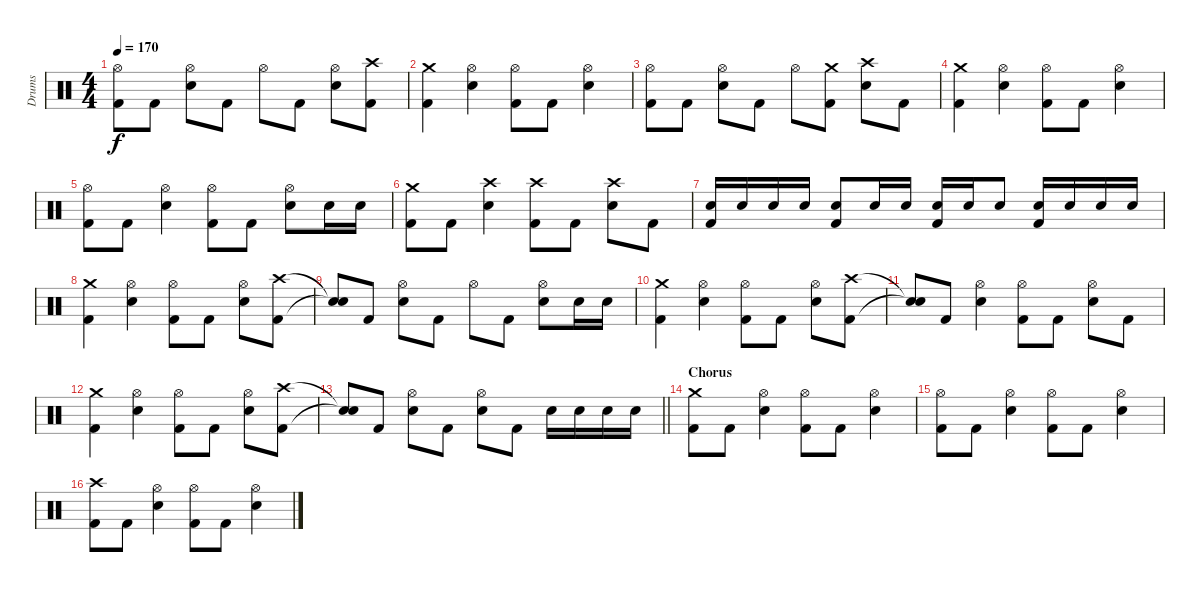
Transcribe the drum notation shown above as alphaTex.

\track ("Drums" "Drums") {instrument percussion}
\staff {score}
\articulation defaults
\ts (4 4)
\tempo 170
\clef neutral
\ks c
("Hi-Hat (open)" "Kick (hit) 2").8{dy f} "Kick (hit) 2".8 ("Hi-Hat (open)" "Electric Snare (hit)").8 "Kick (hit) 2".8 "Hi-Hat (open)".8 "Kick (hit) 2".8 ("Hi-Hat (open)" "Electric Snare (hit)").8 ("Crash high (hit)" "Kick (hit) 2").8 |
("Crash medium (hit)" "Kick (hit) 2").4 ("Hi-Hat (open)" "Electric Snare (hit)").4 ("Hi-Hat (open)" "Kick (hit) 2").8 "Kick (hit) 2".8 ("Hi-Hat (open)" "Electric Snare (hit)").4 |
("Hi-Hat (open)" "Kick (hit) 2").8 "Kick (hit) 2".8 ("Hi-Hat (open)" "Electric Snare (hit)").8 "Kick (hit) 2".8 "Hi-Hat (open)".8 ("Crash medium (hit)" "Kick (hit) 2").8 ("Crash high (hit)" "Electric Snare (hit)").8 "Kick (hit) 2".8 |
("Crash medium (hit)" "Kick (hit) 2").4 ("Hi-Hat (open)" "Electric Snare (hit)").4 ("Hi-Hat (open)" "Kick (hit) 2").8 "Kick (hit) 2".8 ("Hi-Hat (open)" "Electric Snare (hit)").4 |
("Hi-Hat (open)" "Kick (hit) 2").8 "Kick (hit) 2".8 ("Hi-Hat (open)" "Electric Snare (hit)").4 ("Hi-Hat (open)" "Kick (hit) 2").8 "Kick (hit) 2".8 ("Hi-Hat (open)" "Electric Snare (hit)").8 "Electric Snare (hit)".16 "Electric Snare (hit)".16 |
("Crash medium (hit)" "Kick (hit) 2").8 "Kick (hit) 2".8 ("Crash high (hit)" "Electric Snare (hit)").4 ("Crash high (hit)" "Kick (hit) 2").8 "Kick (hit) 2".8 ("Crash high (hit)" "Electric Snare (hit)").8 "Kick (hit) 2".8 |
("Electric Snare (hit)" "Kick (hit) 2").16 "Electric Snare (hit)".16 "Electric Snare (hit)".16 "Electric Snare (hit)".16 ("Electric Snare (hit)" "Kick (hit) 2").8 "Electric Snare (hit)".16 "Electric Snare (hit)".16 ("Electric Snare (hit)" "Kick (hit) 2").16 "Electric Snare (hit)".16 "Electric Snare (hit)".8 ("Electric Snare (hit)" "Kick (hit) 2").16 "Electric Snare (hit)".16 "Electric Snare (hit)".16 "Electric Snare (hit)".16 |
("Crash medium (hit)" "Kick (hit) 2").4 ("Hi-Hat (open)" "Electric Snare (hit)").4 ("Hi-Hat (open)" "Kick (hit) 2").8 "Kick (hit) 2".8 ("Hi-Hat (open)" "Electric Snare (hit)").8 ("Crash high (hit)" "Kick (hit) 2").8 |
("Snare (hit)"{t} "Snare (hit)"{t}).8 "Kick (hit) 2".8 ("Hi-Hat (open)" "Electric Snare (hit)").8 "Kick (hit) 2".8 "Hi-Hat (open)".8 "Kick (hit) 2".8 ("Hi-Hat (open)" "Electric Snare (hit)").8 "Electric Snare (hit)".16 "Electric Snare (hit)".16 |
("Crash medium (hit)" "Kick (hit) 2").4 ("Hi-Hat (open)" "Electric Snare (hit)").4 ("Hi-Hat (open)" "Kick (hit) 2").8 "Kick (hit) 2".8 ("Hi-Hat (open)" "Electric Snare (hit)").8 ("Crash high (hit)" "Kick (hit) 2").8 |
("Snare (hit)"{t} "Snare (hit)"{t}).8 "Kick (hit) 2".8 ("Hi-Hat (open)" "Electric Snare (hit)").4 ("Hi-Hat (open)" "Kick (hit) 2").8 "Kick (hit) 2".8 ("Hi-Hat (open)" "Electric Snare (hit)").8 "Kick (hit) 2".8 |
("Crash medium (hit)" "Kick (hit) 2").4 ("Hi-Hat (open)" "Electric Snare (hit)").4 ("Hi-Hat (open)" "Kick (hit) 2").8 "Kick (hit) 2".8 ("Hi-Hat (open)" "Electric Snare (hit)").8 ("Crash high (hit)" "Kick (hit) 2").8 |
\barLineRight lightlight
("Snare (hit)"{t} "Snare (hit)"{t}).8 "Kick (hit) 2".8 ("Hi-Hat (open)" "Electric Snare (hit)").8 "Kick (hit) 2".8 ("Hi-Hat (open)" "Electric Snare (hit)").8 "Kick (hit) 2".8 "Electric Snare (hit)".16 "Electric Snare (hit)".16 "Electric Snare (hit)".16 "Electric Snare (hit)".16 |
\section ("" "Chorus")
("Crash medium (hit)" "Kick (hit) 2").8 "Kick (hit) 2".8 ("Hi-Hat (open)" "Electric Snare (hit)").4 ("Hi-Hat (open)" "Kick (hit) 2").8 "Kick (hit) 2".8 ("Hi-Hat (open)" "Electric Snare (hit)").4 |
("Hi-Hat (open)" "Kick (hit) 2").8 "Kick (hit) 2".8 ("Hi-Hat (open)" "Electric Snare (hit)").4 ("Hi-Hat (open)" "Kick (hit) 2").8 "Kick (hit) 2".8 ("Hi-Hat (open)" "Electric Snare (hit)").4 |
("Crash high (hit)" "Kick (hit) 2").8 "Kick (hit) 2".8 ("Hi-Hat (open)" "Electric Snare (hit)").4 ("Hi-Hat (open)" "Kick (hit) 2").8 "Kick (hit) 2".8 ("Hi-Hat (open)" "Electric Snare (hit)").4
